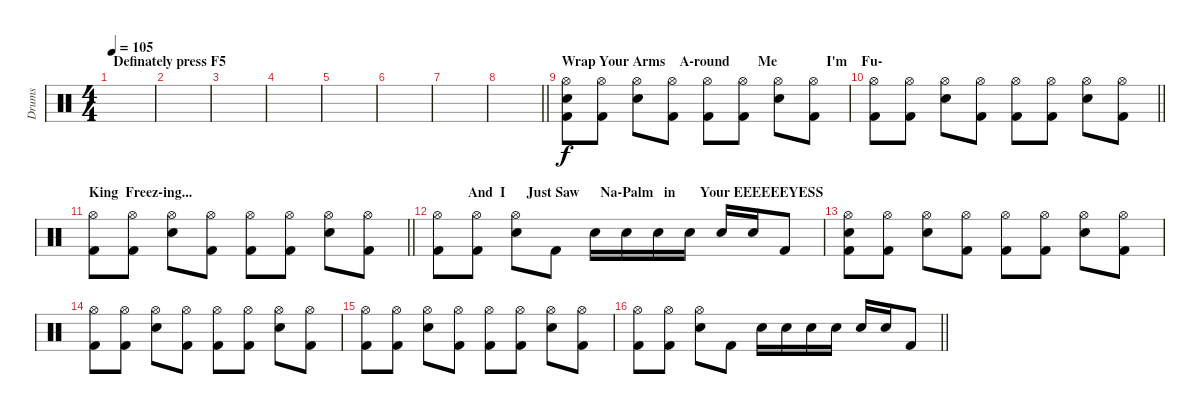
\track ("Drums " "Drums ") {instrument percussion}
\staff {score}
\articulation defaults
\ts (4 4)
\section ("" "Definately press F5")
\tempo 105
\clef neutral
\ks c
|
|
|
|
|
|
|
\barLineRight lightlight
|
\section ("" "Wrap Your Arms    A-round        Me              I'm    Fu-")
("Hi-Hat (open)" "Kick (hit) 2" "Snare (hit) 2").8 ("Hi-Hat (open)" "Kick (hit) 2").8 ("Hi-Hat (open)" "Snare (hit) 2").8 ("Hi-Hat (open)" "Kick (hit) 2").8 ("Hi-Hat (open)" "Kick (hit) 2").8 ("Hi-Hat (open)" "Kick (hit) 2").8 ("Hi-Hat (open)" "Snare (hit) 2").8 ("Hi-Hat (open)" "Kick (hit) 2").8 |
\barLineRight lightlight
("Hi-Hat (open)" "Kick (hit) 2").8 ("Hi-Hat (open)" "Kick (hit) 2").8 ("Hi-Hat (open)" "Snare (hit) 2").8 ("Hi-Hat (open)" "Kick (hit) 2").8 ("Hi-Hat (open)" "Kick (hit) 2").8 ("Hi-Hat (open)" "Kick (hit) 2").8 ("Hi-Hat (open)" "Snare (hit) 2").8 ("Hi-Hat (open)" "Kick (hit) 2").8 |
\section ("" "King  Freez-ing...")
\barLineRight lightlight
("Hi-Hat (open)" "Kick (hit) 2").8 ("Hi-Hat (open)" "Kick (hit) 2").8 ("Hi-Hat (open)" "Snare (hit) 2").8 ("Hi-Hat (open)" "Kick (hit) 2").8 ("Hi-Hat (open)" "Kick (hit) 2").8 ("Hi-Hat (open)" "Kick (hit) 2").8 ("Hi-Hat (open)" "Snare (hit) 2").8 ("Hi-Hat (open)" "Kick (hit) 2").8 |
\section ("" "          And  I      Just Saw      Na-Palm   in       Your EEEEEEYESS")
("Hi-Hat (open)" "Kick (hit) 2").8 ("Hi-Hat (open)" "Kick (hit) 2").8 ("Hi-Hat (open)" "Snare (hit) 2").8 "Kick (hit) 2".8 "Snare (hit) 2".16 "Snare (hit) 2".16 "Snare (hit) 2".16 "Snare (hit) 2".16 "Snare (hit) 2".16 "Snare (hit) 2".16 "Kick (hit) 2".8 |
("Hi-Hat (open)" "Kick (hit) 2" "Snare (hit) 2").8 ("Hi-Hat (open)" "Kick (hit) 2").8 ("Hi-Hat (open)" "Snare (hit) 2").8 ("Hi-Hat (open)" "Kick (hit) 2").8 ("Hi-Hat (open)" "Kick (hit) 2").8 ("Hi-Hat (open)" "Kick (hit) 2").8 ("Hi-Hat (open)" "Snare (hit) 2").8 ("Hi-Hat (open)" "Kick (hit) 2").8 |
("Hi-Hat (open)" "Kick (hit) 2").8 ("Hi-Hat (open)" "Kick (hit) 2").8 ("Hi-Hat (open)" "Snare (hit) 2").8 ("Hi-Hat (open)" "Kick (hit) 2").8 ("Hi-Hat (open)" "Kick (hit) 2").8 ("Hi-Hat (open)" "Kick (hit) 2").8 ("Hi-Hat (open)" "Snare (hit) 2").8 ("Hi-Hat (open)" "Kick (hit) 2").8 |
("Hi-Hat (open)" "Kick (hit) 2").8 ("Hi-Hat (open)" "Kick (hit) 2").8 ("Hi-Hat (open)" "Snare (hit) 2").8 ("Hi-Hat (open)" "Kick (hit) 2").8 ("Hi-Hat (open)" "Kick (hit) 2").8 ("Hi-Hat (open)" "Kick (hit) 2").8 ("Hi-Hat (open)" "Snare (hit) 2").8 ("Hi-Hat (open)" "Kick (hit) 2").8 |
\barLineRight lightlight
("Hi-Hat (open)" "Kick (hit) 2").8 ("Hi-Hat (open)" "Kick (hit) 2").8 ("Hi-Hat (open)" "Snare (hit) 2").8 "Kick (hit) 2".8 "Snare (hit) 2".16 "Snare (hit) 2".16 "Snare (hit) 2".16 "Snare (hit) 2".16 "Snare (hit) 2".16 "Snare (hit) 2".16 "Kick (hit) 2".8
